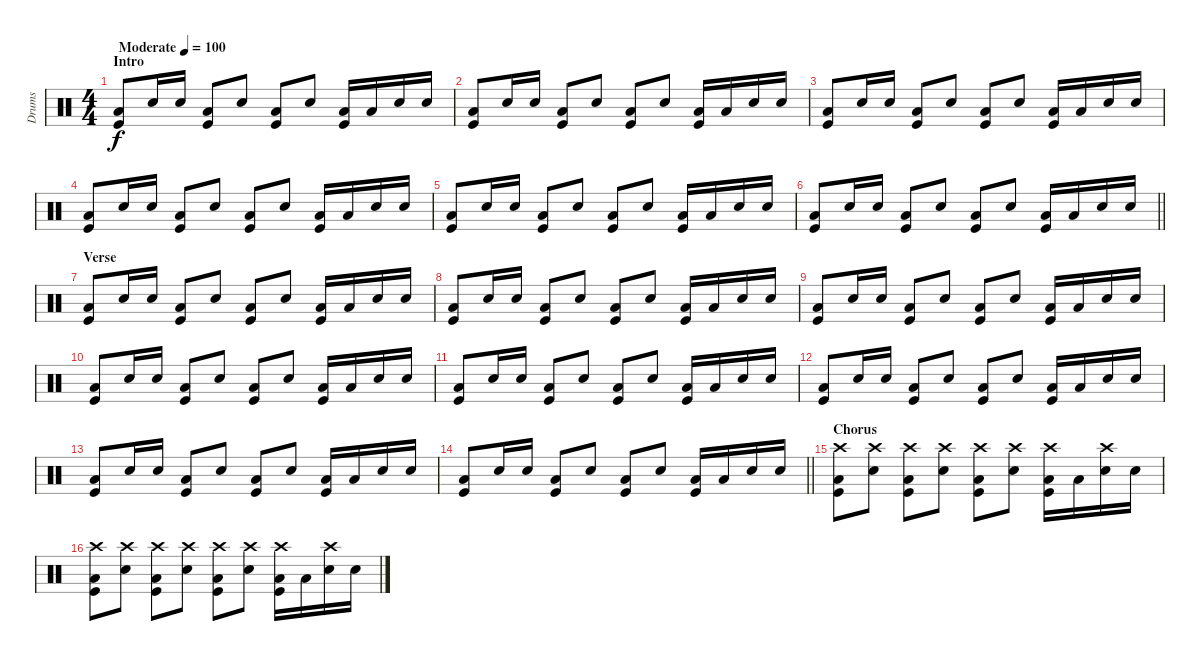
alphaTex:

\track ("Drums" "Drums") {instrument percussion}
\staff {score}
\articulation defaults
\ts (4 4)
\section ("" "Intro")
\tempo (100 "Moderate")
\clef neutral
\ks c
("Low Floor Tom (hit)" "Kick (hit)").8{dy f} "Snare (hit) 2".16 "Snare (hit) 2".16 ("Low Floor Tom (hit)" "Kick (hit)").8 "Snare (hit) 2".8 ("Low Floor Tom (hit)" "Kick (hit)").8 "Snare (hit) 2".8 ("Low Floor Tom (hit)" "Kick (hit)").16 "Low Floor Tom (hit)".16 "Snare (hit) 2".16 "Snare (hit) 2".16 |
("Low Floor Tom (hit)" "Kick (hit)").8 "Snare (hit) 2".16 "Snare (hit) 2".16 ("Low Floor Tom (hit)" "Kick (hit)").8 "Snare (hit) 2".8 ("Low Floor Tom (hit)" "Kick (hit)").8 "Snare (hit) 2".8 ("Low Floor Tom (hit)" "Kick (hit)").16 "Low Floor Tom (hit)".16 "Snare (hit) 2".16 "Snare (hit) 2".16 |
("Low Floor Tom (hit)" "Kick (hit)").8 "Snare (hit) 2".16 "Snare (hit) 2".16 ("Low Floor Tom (hit)" "Kick (hit)").8 "Snare (hit) 2".8 ("Low Floor Tom (hit)" "Kick (hit)").8 "Snare (hit) 2".8 ("Low Floor Tom (hit)" "Kick (hit)").16 "Low Floor Tom (hit)".16 "Snare (hit) 2".16 "Snare (hit) 2".16 |
("Low Floor Tom (hit)" "Kick (hit)").8 "Snare (hit) 2".16 "Snare (hit) 2".16 ("Low Floor Tom (hit)" "Kick (hit)").8 "Snare (hit) 2".8 ("Low Floor Tom (hit)" "Kick (hit)").8 "Snare (hit) 2".8 ("Low Floor Tom (hit)" "Kick (hit)").16 "Low Floor Tom (hit)".16 "Snare (hit) 2".16 "Snare (hit) 2".16 |
("Low Floor Tom (hit)" "Kick (hit)").8 "Snare (hit) 2".16 "Snare (hit) 2".16 ("Low Floor Tom (hit)" "Kick (hit)").8 "Snare (hit) 2".8 ("Low Floor Tom (hit)" "Kick (hit)").8 "Snare (hit) 2".8 ("Low Floor Tom (hit)" "Kick (hit)").16 "Low Floor Tom (hit)".16 "Snare (hit) 2".16 "Snare (hit) 2".16 |
\barLineRight lightlight
("Low Floor Tom (hit)" "Kick (hit)").8 "Snare (hit) 2".16 "Snare (hit) 2".16 ("Low Floor Tom (hit)" "Kick (hit)").8 "Snare (hit) 2".8 ("Low Floor Tom (hit)" "Kick (hit)").8 "Snare (hit) 2".8 ("Low Floor Tom (hit)" "Kick (hit)").16 "Low Floor Tom (hit)".16 "Snare (hit) 2".16 "Snare (hit) 2".16 |
\section ("" "Verse")
("Low Floor Tom (hit)" "Kick (hit)").8 "Snare (hit) 2".16 "Snare (hit) 2".16 ("Low Floor Tom (hit)" "Kick (hit)").8 "Snare (hit) 2".8 ("Low Floor Tom (hit)" "Kick (hit)").8 "Snare (hit) 2".8 ("Low Floor Tom (hit)" "Kick (hit)").16 "Low Floor Tom (hit)".16 "Snare (hit) 2".16 "Snare (hit) 2".16 |
("Low Floor Tom (hit)" "Kick (hit)").8 "Snare (hit) 2".16 "Snare (hit) 2".16 ("Low Floor Tom (hit)" "Kick (hit)").8 "Snare (hit) 2".8 ("Low Floor Tom (hit)" "Kick (hit)").8 "Snare (hit) 2".8 ("Low Floor Tom (hit)" "Kick (hit)").16 "Low Floor Tom (hit)".16 "Snare (hit) 2".16 "Snare (hit) 2".16 |
("Low Floor Tom (hit)" "Kick (hit)").8 "Snare (hit) 2".16 "Snare (hit) 2".16 ("Low Floor Tom (hit)" "Kick (hit)").8 "Snare (hit) 2".8 ("Low Floor Tom (hit)" "Kick (hit)").8 "Snare (hit) 2".8 ("Low Floor Tom (hit)" "Kick (hit)").16 "Low Floor Tom (hit)".16 "Snare (hit) 2".16 "Snare (hit) 2".16 |
("Low Floor Tom (hit)" "Kick (hit)").8 "Snare (hit) 2".16 "Snare (hit) 2".16 ("Low Floor Tom (hit)" "Kick (hit)").8 "Snare (hit) 2".8 ("Low Floor Tom (hit)" "Kick (hit)").8 "Snare (hit) 2".8 ("Low Floor Tom (hit)" "Kick (hit)").16 "Low Floor Tom (hit)".16 "Snare (hit) 2".16 "Snare (hit) 2".16 |
("Low Floor Tom (hit)" "Kick (hit)").8 "Snare (hit) 2".16 "Snare (hit) 2".16 ("Low Floor Tom (hit)" "Kick (hit)").8 "Snare (hit) 2".8 ("Low Floor Tom (hit)" "Kick (hit)").8 "Snare (hit) 2".8 ("Low Floor Tom (hit)" "Kick (hit)").16 "Low Floor Tom (hit)".16 "Snare (hit) 2".16 "Snare (hit) 2".16 |
("Low Floor Tom (hit)" "Kick (hit)").8 "Snare (hit) 2".16 "Snare (hit) 2".16 ("Low Floor Tom (hit)" "Kick (hit)").8 "Snare (hit) 2".8 ("Low Floor Tom (hit)" "Kick (hit)").8 "Snare (hit) 2".8 ("Low Floor Tom (hit)" "Kick (hit)").16 "Low Floor Tom (hit)".16 "Snare (hit) 2".16 "Snare (hit) 2".16 |
("Low Floor Tom (hit)" "Kick (hit)").8 "Snare (hit) 2".16 "Snare (hit) 2".16 ("Low Floor Tom (hit)" "Kick (hit)").8 "Snare (hit) 2".8 ("Low Floor Tom (hit)" "Kick (hit)").8 "Snare (hit) 2".8 ("Low Floor Tom (hit)" "Kick (hit)").16 "Low Floor Tom (hit)".16 "Snare (hit) 2".16 "Snare (hit) 2".16 |
\barLineRight lightlight
("Low Floor Tom (hit)" "Kick (hit)").8 "Snare (hit) 2".16 "Snare (hit) 2".16 ("Low Floor Tom (hit)" "Kick (hit)").8 "Snare (hit) 2".8 ("Low Floor Tom (hit)" "Kick (hit)").8 "Snare (hit) 2".8 ("Low Floor Tom (hit)" "Kick (hit)").16 "Low Floor Tom (hit)".16 "Snare (hit) 2".16 "Snare (hit) 2".16 |
\section ("" "Chorus")
("Crash high (hit)" "Low Floor Tom (hit)" "Kick (hit)").8 ("Crash high (hit)" "Snare (hit) 2").8 ("Crash high (hit)" "Low Floor Tom (hit)" "Kick (hit)").8 ("Crash high (hit)" "Snare (hit) 2").8 ("Crash high (hit)" "Low Floor Tom (hit)" "Kick (hit)").8 ("Crash high (hit)" "Snare (hit) 2").8 ("Crash high (hit)" "Low Floor Tom (hit)" "Kick (hit)").16 "Low Floor Tom (hit)".16 ("Crash high (hit)" "Snare (hit) 2").16 "Snare (hit) 2".16 |
("Crash high (hit)" "Low Floor Tom (hit)" "Kick (hit)").8 ("Crash high (hit)" "Snare (hit) 2").8 ("Crash high (hit)" "Low Floor Tom (hit)" "Kick (hit)").8 ("Crash high (hit)" "Snare (hit) 2").8 ("Crash high (hit)" "Low Floor Tom (hit)" "Kick (hit)").8 ("Crash high (hit)" "Snare (hit) 2").8 ("Crash high (hit)" "Low Floor Tom (hit)" "Kick (hit)").16 "Low Floor Tom (hit)".16 ("Crash high (hit)" "Snare (hit) 2").16 "Snare (hit) 2".16
